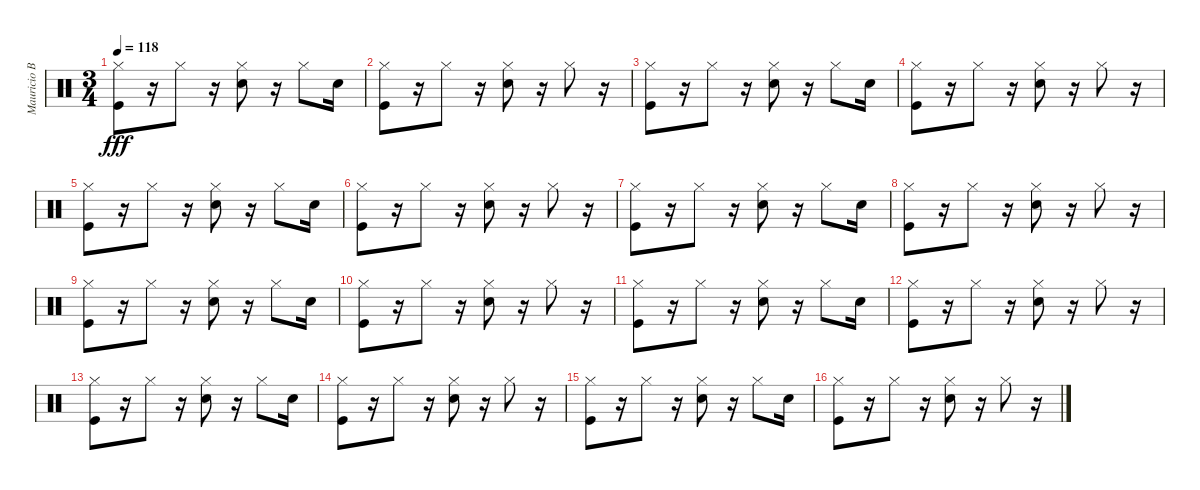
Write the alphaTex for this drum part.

\track ("Mauricio Basualto" "Mauricio B") {instrument percussion}
\staff {score}
\articulation defaults
\ts (3 4)
\tempo 118
\clef neutral
\ks c
("Hi-Hat (closed)" "Kick (hit)").8{dy fff} r.16 "Hi-Hat (closed)".8 r.16 ("Hi-Hat (closed)" "Snare (hit) 2").8 r.16 "Hi-Hat (closed)".8 "Snare (hit) 2".16 |
("Hi-Hat (closed)" "Kick (hit)").8 r.16 "Hi-Hat (closed)".8 r.16 ("Hi-Hat (closed)" "Snare (hit) 2").8 r.16 "Hi-Hat (closed)".8 r.16 |
("Hi-Hat (closed)" "Kick (hit)").8 r.16 "Hi-Hat (closed)".8 r.16 ("Hi-Hat (closed)" "Snare (hit) 2").8 r.16 "Hi-Hat (closed)".8 "Snare (hit) 2".16 |
("Hi-Hat (closed)" "Kick (hit)").8 r.16 "Hi-Hat (closed)".8 r.16 ("Hi-Hat (closed)" "Snare (hit) 2").8 r.16 "Hi-Hat (closed)".8 r.16 |
("Hi-Hat (closed)" "Kick (hit)").8 r.16 "Hi-Hat (closed)".8 r.16 ("Hi-Hat (closed)" "Snare (hit) 2").8 r.16 "Hi-Hat (closed)".8 "Snare (hit) 2".16 |
("Hi-Hat (closed)" "Kick (hit)").8 r.16 "Hi-Hat (closed)".8 r.16 ("Hi-Hat (closed)" "Snare (hit) 2").8 r.16 "Hi-Hat (closed)".8 r.16 |
("Hi-Hat (closed)" "Kick (hit)").8 r.16 "Hi-Hat (closed)".8 r.16 ("Hi-Hat (closed)" "Snare (hit) 2").8 r.16 "Hi-Hat (closed)".8 "Snare (hit) 2".16 |
("Hi-Hat (closed)" "Kick (hit)").8 r.16 "Hi-Hat (closed)".8 r.16 ("Hi-Hat (closed)" "Snare (hit) 2").8 r.16 "Hi-Hat (closed)".8 r.16 |
("Hi-Hat (closed)" "Kick (hit)").8 r.16 "Hi-Hat (closed)".8 r.16 ("Hi-Hat (closed)" "Snare (hit) 2").8 r.16 "Hi-Hat (closed)".8 "Snare (hit) 2".16 |
("Hi-Hat (closed)" "Kick (hit)").8 r.16 "Hi-Hat (closed)".8 r.16 ("Hi-Hat (closed)" "Snare (hit) 2").8 r.16 "Hi-Hat (closed)".8 r.16 |
("Hi-Hat (closed)" "Kick (hit)").8 r.16 "Hi-Hat (closed)".8 r.16 ("Hi-Hat (closed)" "Snare (hit) 2").8 r.16 "Hi-Hat (closed)".8 "Snare (hit) 2".16 |
("Hi-Hat (closed)" "Kick (hit)").8 r.16 "Hi-Hat (closed)".8 r.16 ("Hi-Hat (closed)" "Snare (hit) 2").8 r.16 "Hi-Hat (closed)".8 r.16 |
("Hi-Hat (closed)" "Kick (hit)").8 r.16 "Hi-Hat (closed)".8 r.16 ("Hi-Hat (closed)" "Snare (hit) 2").8 r.16 "Hi-Hat (closed)".8 "Snare (hit) 2".16 |
("Hi-Hat (closed)" "Kick (hit)").8 r.16 "Hi-Hat (closed)".8 r.16 ("Hi-Hat (closed)" "Snare (hit) 2").8 r.16 "Hi-Hat (closed)".8 r.16 |
("Hi-Hat (closed)" "Kick (hit)").8 r.16 "Hi-Hat (closed)".8 r.16 ("Hi-Hat (closed)" "Snare (hit) 2").8 r.16 "Hi-Hat (closed)".8 "Snare (hit) 2".16 |
("Hi-Hat (closed)" "Kick (hit)").8 r.16 "Hi-Hat (closed)".8 r.16 ("Hi-Hat (closed)" "Snare (hit) 2").8 r.16 "Hi-Hat (closed)".8 r.16
